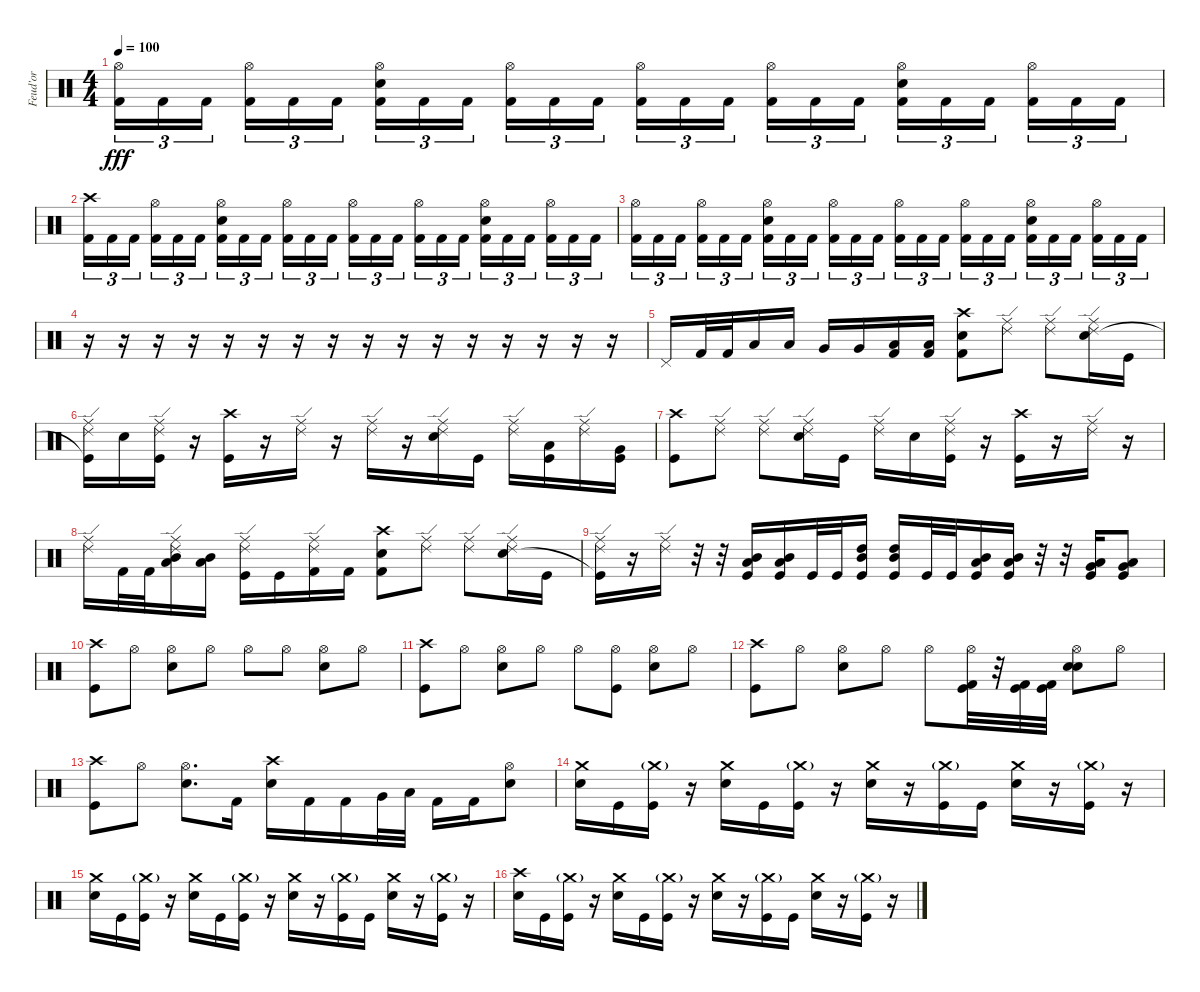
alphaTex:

\track ("Feud'or" "Feud'or") {instrument percussion}
\staff {score}
\articulation defaults
\ts (4 4)
\tempo 100
\clef neutral
\ks c
("Hi-Hat (open)" "Kick (hit) 2").16{tu (3 2) dy fff} "Kick (hit) 2".16{tu (3 2)} "Kick (hit) 2".16{tu (3 2) beam splitsecondary} ("Hi-Hat (open)" "Kick (hit) 2").16{tu (3 2)} "Kick (hit) 2".16{tu (3 2)} "Kick (hit) 2".16{tu (3 2)} ("Hi-Hat (open)" "Snare (hit) 2" "Kick (hit) 2").16{tu (3 2)} "Kick (hit) 2".16{tu (3 2)} "Kick (hit) 2".16{tu (3 2) beam splitsecondary} ("Hi-Hat (open)" "Kick (hit) 2").16{tu (3 2)} "Kick (hit) 2".16{tu (3 2)} "Kick (hit) 2".16{tu (3 2)} ("Hi-Hat (open)" "Kick (hit) 2").16{tu (3 2)} "Kick (hit) 2".16{tu (3 2)} "Kick (hit) 2".16{tu (3 2) beam splitsecondary} ("Hi-Hat (open)" "Kick (hit) 2").16{tu (3 2)} "Kick (hit) 2".16{tu (3 2)} "Kick (hit) 2".16{tu (3 2)} ("Hi-Hat (open)" "Snare (hit) 2" "Kick (hit) 2").16{tu (3 2)} "Kick (hit) 2".16{tu (3 2)} "Kick (hit) 2".16{tu (3 2) beam splitsecondary} ("Hi-Hat (open)" "Kick (hit) 2").16{tu (3 2)} "Kick (hit) 2".16{tu (3 2)} "Kick (hit) 2".16{tu (3 2)} |
("Crash high (hit)" "Kick (hit) 2").16{tu (3 2)} "Kick (hit) 2".16{tu (3 2)} "Kick (hit) 2".16{tu (3 2) beam splitsecondary} ("Hi-Hat (open)" "Kick (hit) 2").16{tu (3 2)} "Kick (hit) 2".16{tu (3 2)} "Kick (hit) 2".16{tu (3 2)} ("Hi-Hat (open)" "Snare (hit) 2" "Kick (hit) 2").16{tu (3 2)} "Kick (hit) 2".16{tu (3 2)} "Kick (hit) 2".16{tu (3 2) beam splitsecondary} ("Hi-Hat (open)" "Kick (hit) 2").16{tu (3 2)} "Kick (hit) 2".16{tu (3 2)} "Kick (hit) 2".16{tu (3 2)} ("Hi-Hat (open)" "Kick (hit) 2").16{tu (3 2)} "Kick (hit) 2".16{tu (3 2)} "Kick (hit) 2".16{tu (3 2) beam splitsecondary} ("Hi-Hat (open)" "Kick (hit) 2").16{tu (3 2)} "Kick (hit) 2".16{tu (3 2)} "Kick (hit) 2".16{tu (3 2)} ("Hi-Hat (open)" "Snare (hit) 2" "Kick (hit) 2").16{tu (3 2)} "Kick (hit) 2".16{tu (3 2)} "Kick (hit) 2".16{tu (3 2) beam splitsecondary} ("Hi-Hat (open)" "Kick (hit) 2").16{tu (3 2)} "Kick (hit) 2".16{tu (3 2)} "Kick (hit) 2".16{tu (3 2)} |
("Hi-Hat (open)" "Kick (hit) 2").16{tu (3 2)} "Kick (hit) 2".16{tu (3 2)} "Kick (hit) 2".16{tu (3 2) beam splitsecondary} ("Hi-Hat (open)" "Kick (hit) 2").16{tu (3 2)} "Kick (hit) 2".16{tu (3 2)} "Kick (hit) 2".16{tu (3 2)} ("Hi-Hat (open)" "Snare (hit) 2" "Kick (hit) 2").16{tu (3 2)} "Kick (hit) 2".16{tu (3 2)} "Kick (hit) 2".16{tu (3 2) beam splitsecondary} ("Hi-Hat (open)" "Kick (hit) 2").16{tu (3 2)} "Kick (hit) 2".16{tu (3 2)} "Kick (hit) 2".16{tu (3 2)} ("Hi-Hat (open)" "Kick (hit) 2").16{tu (3 2)} "Kick (hit) 2".16{tu (3 2)} "Kick (hit) 2".16{tu (3 2) beam splitsecondary} ("Hi-Hat (open)" "Kick (hit) 2").16{tu (3 2)} "Kick (hit) 2".16{tu (3 2)} "Kick (hit) 2".16{tu (3 2)} ("Hi-Hat (open)" "Snare (hit) 2" "Kick (hit) 2").16{tu (3 2)} "Kick (hit) 2".16{tu (3 2)} "Kick (hit) 2".16{tu (3 2) beam splitsecondary} ("Hi-Hat (open)" "Kick (hit) 2").16{tu (3 2)} "Kick (hit) 2".16{tu (3 2)} "Kick (hit) 2".16{tu (3 2)} |
r.16 r.16 r.16 r.16 r.16 r.16 r.16 r.16 r.16 r.16 r.16 r.16 r.16 r.16 r.16 r.16 |
"Pedal Hi-Hat (hit)".16 "Kick (hit) 2".32 "Kick (hit) 2".32 "Low Tom (hit)".16 "Low Tom (hit)".16 "Very Low Tom (hit)".16 "Very Low Tom (hit)".16 ("Low Floor Tom (hit)" "Kick (hit) 2").16 ("Low Floor Tom (hit)" "Kick (hit) 2").16 ("Crash high (hit)" "Snare (hit) 2" "Kick (hit) 2").8 ("Ride (middle)" "Ride (edge) 2").8 ("Ride (middle)" "Ride (edge) 2").8 ("Ride (middle)" "Ride (edge) 2" "Snare (hit) 2").16 "Kick (hit)".16 |
("Ride (middle)" "Ride (edge) 2" "Kick (hit)"{t}).16 "Snare (hit) 2".16 ("Ride (middle)" "Ride (edge) 2" "Kick (hit)").16 r.16 ("Crash high (hit)" "Kick (hit)").16 r.16 ("Ride (middle)" "Ride (edge) 2").16 r.16 ("Ride (middle)" "Ride (edge) 2").16 r.16 ("Ride (middle)" "Ride (edge) 2" "Snare (hit) 2").16 "Kick (hit)".16 ("Ride (middle)" "Ride (edge) 2").16 ("Low Tom (hit)" "Kick (hit)").16 ("Ride (middle)" "Ride (edge) 2").16 ("Very Low Tom (hit)" "Kick (hit)").16 |
("Crash high (hit)" "Kick (hit)").8 ("Ride (middle)" "Ride (edge) 2").8 ("Ride (middle)" "Ride (edge) 2").8 ("Ride (middle)" "Ride (edge) 2" "Snare (hit) 2").16 "Kick (hit)".16 ("Ride (middle)" "Ride (edge) 2").16 "Snare (hit) 2".16 ("Ride (middle)" "Ride (edge) 2" "Kick (hit)").16 r.16 ("Crash high (hit)" "Kick (hit)").16 r.16 ("Ride (middle)" "Ride (edge) 2").16 r.16 |
("Ride (middle)" "Ride (edge) 2").16 "Kick (hit) 2".32 "Kick (hit) 2".32 ("Ride (middle)" "Ride (edge) 2" "Mid Tom (hit)" "Low Tom (hit)").16 ("Mid Tom (hit)" "Low Tom (hit)").16 ("Ride (middle)" "Ride (edge) 2" "Kick (hit)").16 "Kick (hit)".16 ("Ride (middle)" "Ride (edge) 2" "Kick (hit) 2").16 "Kick (hit) 2".16 ("Crash high (hit)" "Snare (hit) 2" "Kick (hit) 2").8 ("Ride (middle)" "Ride (edge) 2").8 ("Ride (middle)" "Ride (edge) 2").8 ("Ride (middle)" "Ride (edge) 2" "Snare (hit) 2").16 "Kick (hit)".16 |
("Ride (middle)" "Ride (edge) 2" "Kick (hit)"{t}).16 r.16 ("Ride (middle)" "Ride (edge) 2").16 r.32 r.32 ("Mid Tom (hit)" "Low Tom (hit)" "Kick (hit)").16 ("Mid Tom (hit)" "Low Tom (hit)" "Kick (hit)").16 "Kick (hit)".32 "Kick (hit)".32 ("High Tom (hit)" "Mid Tom (hit)" "Kick (hit)").16 ("High Tom (hit)" "Mid Tom (hit)" "Kick (hit)").16 "Kick (hit)".32 "Kick (hit)".32 ("Mid Tom (hit)" "Low Tom (hit)" "Kick (hit)").16 ("Mid Tom (hit)" "Low Tom (hit)" "Kick (hit)").16 r.32 r.32 ("Low Floor Tom (hit)" "Very Low Tom (hit)" "Kick (hit)").16 ("Low Floor Tom (hit)" "Very Low Tom (hit)" "Kick (hit)").8 |
("Crash high (hit)" "Kick (hit)").8 "Hi-Hat (open)".8 ("Hi-Hat (open)" "Snare (hit) 2").8 "Hi-Hat (open)".8 "Hi-Hat (open)".8 "Hi-Hat (open)".8 ("Hi-Hat (open)" "Snare (hit) 2").8 "Hi-Hat (open)".8 |
("Crash high (hit)" "Kick (hit)").8 "Hi-Hat (open)".8 ("Hi-Hat (open)" "Snare (hit) 2").8 "Hi-Hat (open)".8 "Hi-Hat (open)".8 ("Hi-Hat (open)" "Kick (hit)").8 ("Hi-Hat (open)" "Snare (hit) 2").8 "Hi-Hat (open)".8 |
("Crash high (hit)" "Kick (hit)").8 "Hi-Hat (open)".8 ("Hi-Hat (open)" "Snare (hit) 2").8 "Hi-Hat (open)".8 "Hi-Hat (open)".8 ("Hi-Hat (open)" "Kick (hit) 2" "Kick (hit)").32 r.32 ("Kick (hit) 2" "Kick (hit)").32 ("Kick (hit) 2" "Kick (hit)").32 ("Hi-Hat (open)" "Electric Snare (hit)" "Snare (hit) 2").8 "Hi-Hat (open)".8 |
("Crash high (hit)" "Kick (hit)").8 "Hi-Hat (open)".8 ("Hi-Hat (open)" "Snare (hit) 2").8{d} "Kick (hit) 2".16 ("Crash high (hit)" "Snare (hit) 2").16 "Kick (hit) 2".16 "Kick (hit) 2".16 "Very Low Tom (hit)".32 "Low Floor Tom (hit)".32 "Kick (hit) 2".16 "Kick (hit) 2".16 ("Hi-Hat (open)" "Snare (hit) 2").8 |
("Crash medium (hit)" "Snare (hit) 2").16 "Kick (hit)".16 ("Crash medium (hit)"{g} "Kick (hit)").16 r.16 ("Crash medium (hit)" "Snare (hit) 2").16 "Kick (hit)".16 ("Crash medium (hit)"{g} "Kick (hit)").16 r.16 ("Crash medium (hit)" "Snare (hit) 2").16 r.16 ("Crash medium (hit)"{g} "Kick (hit)").16 "Kick (hit)".16 ("Crash medium (hit)" "Snare (hit) 2").16 r.16 ("Crash medium (hit)"{g} "Kick (hit)").16 r.16 |
("Crash medium (hit)" "Snare (hit) 2").16 "Kick (hit)".16 ("Crash medium (hit)"{g} "Kick (hit)").16 r.16 ("Crash medium (hit)" "Snare (hit) 2").16 "Kick (hit)".16 ("Crash medium (hit)"{g} "Kick (hit)").16 r.16 ("Crash medium (hit)" "Snare (hit) 2").16 r.16 ("Crash medium (hit)"{g} "Kick (hit)").16 "Kick (hit)".16 ("Crash medium (hit)" "Snare (hit) 2").16 r.16 ("Crash medium (hit)"{g} "Kick (hit)").16 r.16 |
("Crash high (hit)" "Snare (hit) 2").16 "Kick (hit)".16 ("Crash medium (hit)"{g} "Kick (hit)").16 r.16 ("Crash medium (hit)" "Snare (hit) 2").16 "Kick (hit)".16 ("Crash medium (hit)"{g} "Kick (hit)").16 r.16 ("Crash medium (hit)" "Snare (hit) 2").16 r.16 ("Crash medium (hit)"{g} "Kick (hit)").16 "Kick (hit)".16 ("Crash medium (hit)" "Snare (hit) 2").16 r.16 ("Crash medium (hit)"{g} "Kick (hit)").16 r.16
